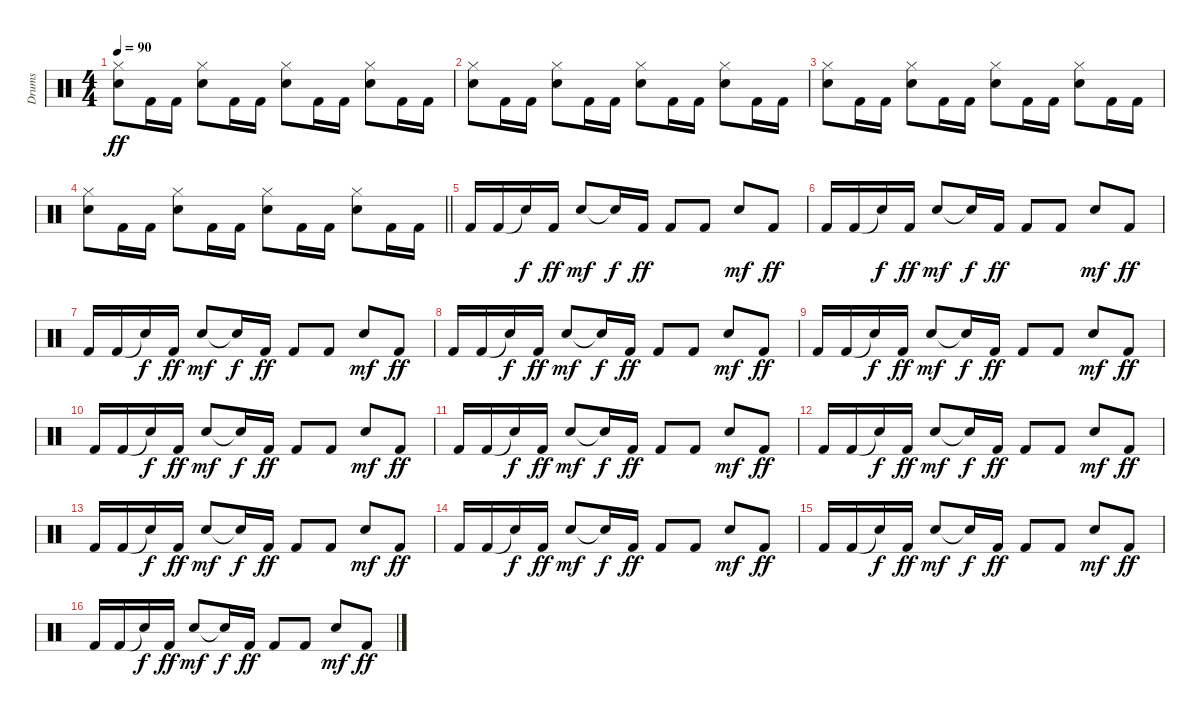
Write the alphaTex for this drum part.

\track ("Drums" "Drums") {instrument percussion}
\staff {score}
\articulation defaults
\ts (4 4)
\tempo 90
\clef neutral
\ks c
("Hi-Hat (closed)" "Snare (hit) 2").8{dy ff} "Kick (hit) 2".16 "Kick (hit) 2".16 ("Hi-Hat (closed)" "Snare (hit) 2").8 "Kick (hit) 2".16 "Kick (hit) 2".16 ("Hi-Hat (closed)" "Snare (hit) 2").8 "Kick (hit) 2".16 "Kick (hit) 2".16 ("Hi-Hat (closed)" "Snare (hit) 2").8 "Kick (hit) 2".16 "Kick (hit) 2".16 |
("Hi-Hat (closed)" "Snare (hit) 2").8 "Kick (hit) 2".16 "Kick (hit) 2".16 ("Hi-Hat (closed)" "Snare (hit) 2").8 "Kick (hit) 2".16 "Kick (hit) 2".16 ("Hi-Hat (closed)" "Snare (hit) 2").8 "Kick (hit) 2".16 "Kick (hit) 2".16 ("Hi-Hat (closed)" "Snare (hit) 2").8 "Kick (hit) 2".16 "Kick (hit) 2".16 |
("Hi-Hat (closed)" "Snare (hit) 2").8 "Kick (hit) 2".16 "Kick (hit) 2".16 ("Hi-Hat (closed)" "Snare (hit) 2").8 "Kick (hit) 2".16 "Kick (hit) 2".16 ("Hi-Hat (closed)" "Snare (hit) 2").8 "Kick (hit) 2".16 "Kick (hit) 2".16 ("Hi-Hat (closed)" "Snare (hit) 2").8 "Kick (hit) 2".16 "Kick (hit) 2".16 |
\barLineRight lightlight
("Hi-Hat (closed)" "Snare (hit) 2").8 "Kick (hit) 2".16 "Kick (hit) 2".16 ("Hi-Hat (closed)" "Snare (hit) 2").8 "Kick (hit) 2".16 "Kick (hit) 2".16 ("Hi-Hat (closed)" "Snare (hit) 2").8 "Kick (hit) 2".16 "Kick (hit) 2".16 ("Hi-Hat (closed)" "Snare (hit) 2").8 "Kick (hit) 2".16 "Kick (hit) 2".16 |
\section ("" "")
"Kick (hit) 2".16 "Kick (hit) 2".16 "Snare (hit)"{t}.16{dy f} "Kick (hit) 2".16{dy ff} "Snare (hit) 2".8{dy mf} "Snare (hit)"{t}.16{dy f} "Kick (hit) 2".16{dy ff} "Kick (hit) 2".8 "Kick (hit) 2".8 "Snare (hit) 2".8{dy mf} "Kick (hit) 2".8{dy ff} |
"Kick (hit) 2".16 "Kick (hit) 2".16 "Snare (hit)"{t}.16{dy f} "Kick (hit) 2".16{dy ff} "Snare (hit) 2".8{dy mf} "Snare (hit)"{t}.16{dy f} "Kick (hit) 2".16{dy ff} "Kick (hit) 2".8 "Kick (hit) 2".8 "Snare (hit) 2".8{dy mf} "Kick (hit) 2".8{dy ff} |
"Kick (hit) 2".16 "Kick (hit) 2".16 "Snare (hit)"{t}.16{dy f} "Kick (hit) 2".16{dy ff} "Snare (hit) 2".8{dy mf} "Snare (hit)"{t}.16{dy f} "Kick (hit) 2".16{dy ff} "Kick (hit) 2".8 "Kick (hit) 2".8 "Snare (hit) 2".8{dy mf} "Kick (hit) 2".8{dy ff} |
"Kick (hit) 2".16 "Kick (hit) 2".16 "Snare (hit)"{t}.16{dy f} "Kick (hit) 2".16{dy ff} "Snare (hit) 2".8{dy mf} "Snare (hit)"{t}.16{dy f} "Kick (hit) 2".16{dy ff} "Kick (hit) 2".8 "Kick (hit) 2".8 "Snare (hit) 2".8{dy mf} "Kick (hit) 2".8{dy ff} |
"Kick (hit) 2".16 "Kick (hit) 2".16 "Snare (hit)"{t}.16{dy f} "Kick (hit) 2".16{dy ff} "Snare (hit) 2".8{dy mf} "Snare (hit)"{t}.16{dy f} "Kick (hit) 2".16{dy ff} "Kick (hit) 2".8 "Kick (hit) 2".8 "Snare (hit) 2".8{dy mf} "Kick (hit) 2".8{dy ff} |
"Kick (hit) 2".16 "Kick (hit) 2".16 "Snare (hit)"{t}.16{dy f} "Kick (hit) 2".16{dy ff} "Snare (hit) 2".8{dy mf} "Snare (hit)"{t}.16{dy f} "Kick (hit) 2".16{dy ff} "Kick (hit) 2".8 "Kick (hit) 2".8 "Snare (hit) 2".8{dy mf} "Kick (hit) 2".8{dy ff} |
"Kick (hit) 2".16 "Kick (hit) 2".16 "Snare (hit)"{t}.16{dy f} "Kick (hit) 2".16{dy ff} "Snare (hit) 2".8{dy mf} "Snare (hit)"{t}.16{dy f} "Kick (hit) 2".16{dy ff} "Kick (hit) 2".8 "Kick (hit) 2".8 "Snare (hit) 2".8{dy mf} "Kick (hit) 2".8{dy ff} |
"Kick (hit) 2".16 "Kick (hit) 2".16 "Snare (hit)"{t}.16{dy f} "Kick (hit) 2".16{dy ff} "Snare (hit) 2".8{dy mf} "Snare (hit)"{t}.16{dy f} "Kick (hit) 2".16{dy ff} "Kick (hit) 2".8 "Kick (hit) 2".8 "Snare (hit) 2".8{dy mf} "Kick (hit) 2".8{dy ff} |
"Kick (hit) 2".16 "Kick (hit) 2".16 "Snare (hit)"{t}.16{dy f} "Kick (hit) 2".16{dy ff} "Snare (hit) 2".8{dy mf} "Snare (hit)"{t}.16{dy f} "Kick (hit) 2".16{dy ff} "Kick (hit) 2".8 "Kick (hit) 2".8 "Snare (hit) 2".8{dy mf} "Kick (hit) 2".8{dy ff} |
"Kick (hit) 2".16 "Kick (hit) 2".16 "Snare (hit)"{t}.16{dy f} "Kick (hit) 2".16{dy ff} "Snare (hit) 2".8{dy mf} "Snare (hit)"{t}.16{dy f} "Kick (hit) 2".16{dy ff} "Kick (hit) 2".8 "Kick (hit) 2".8 "Snare (hit) 2".8{dy mf} "Kick (hit) 2".8{dy ff} |
"Kick (hit) 2".16 "Kick (hit) 2".16 "Snare (hit)"{t}.16{dy f} "Kick (hit) 2".16{dy ff} "Snare (hit) 2".8{dy mf} "Snare (hit)"{t}.16{dy f} "Kick (hit) 2".16{dy ff} "Kick (hit) 2".8 "Kick (hit) 2".8 "Snare (hit) 2".8{dy mf} "Kick (hit) 2".8{dy ff} |
"Kick (hit) 2".16 "Kick (hit) 2".16 "Snare (hit)"{t}.16{dy f} "Kick (hit) 2".16{dy ff} "Snare (hit) 2".8{dy mf} "Snare (hit)"{t}.16{dy f} "Kick (hit) 2".16{dy ff} "Kick (hit) 2".8 "Kick (hit) 2".8 "Snare (hit) 2".8{dy mf} "Kick (hit) 2".8{dy ff}
